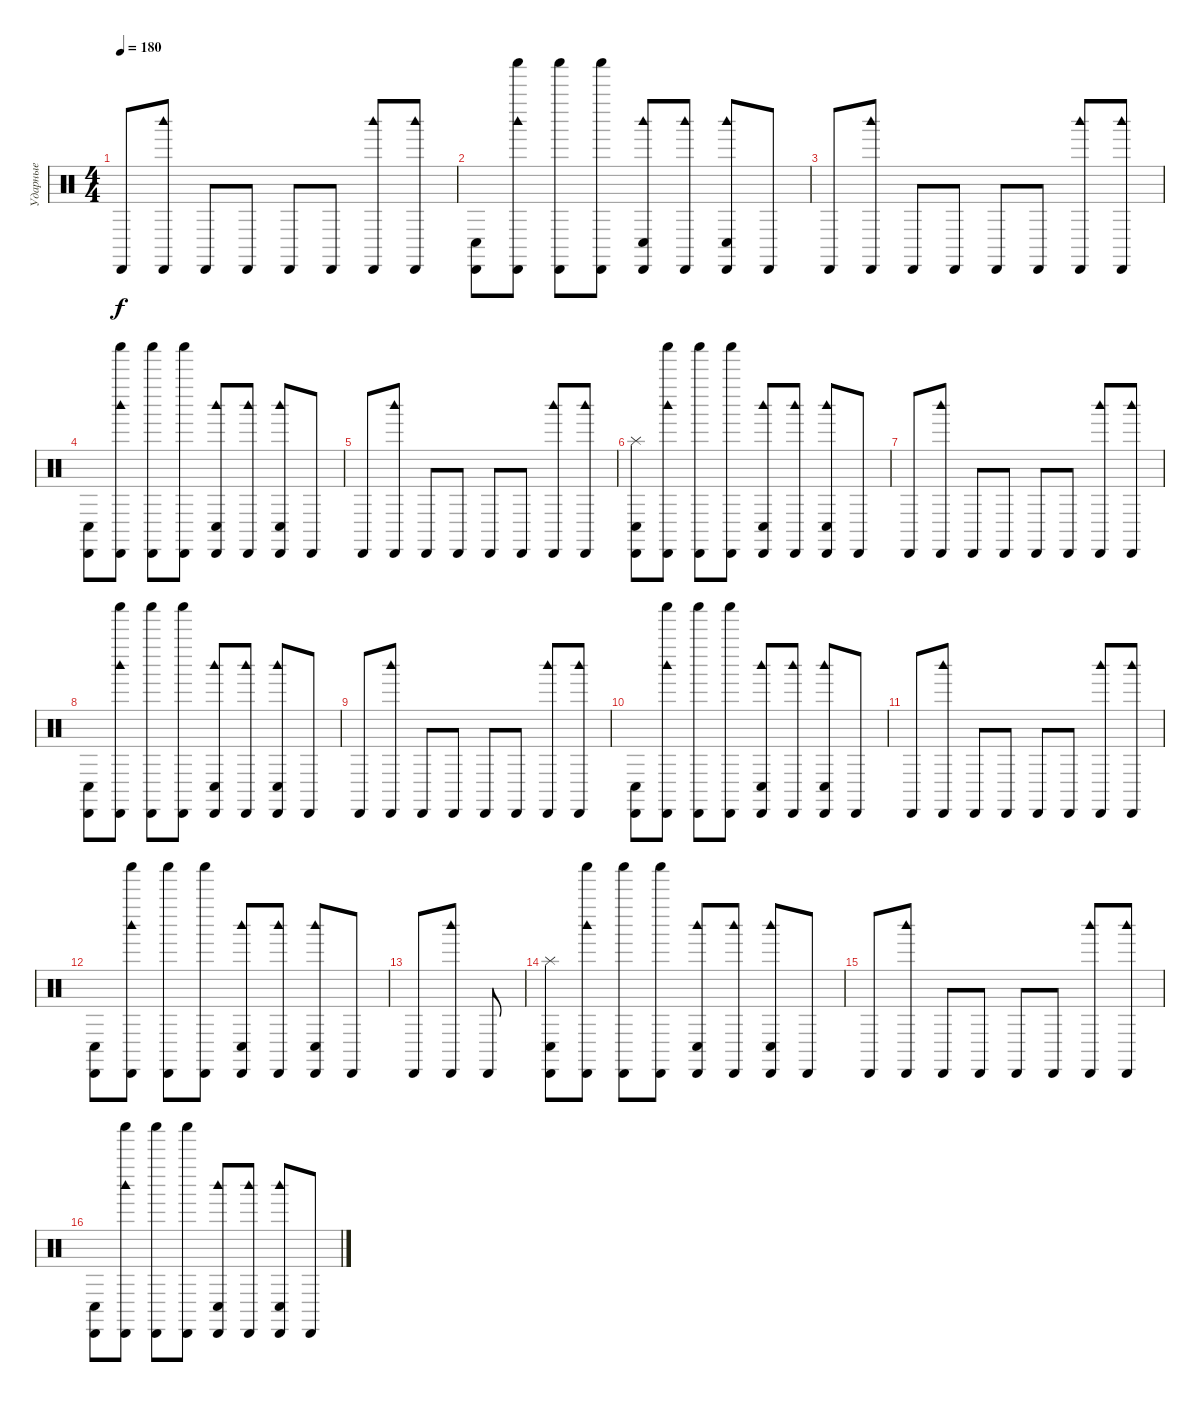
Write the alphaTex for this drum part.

\track ("Ударные" "Ударные") {instrument percussion}
\staff {score}
\articulation defaults
\ts (4 4)
\tempo 180
\clef neutral
\ks c "Cabasa (hit)".8{dy f}
("Woodblock high (hit)" "Cabasa (hit)").8 "Cabasa (hit)".8 "Cabasa (hit)".8 "Cabasa (hit)".8 "Cabasa (hit)".8 ("Woodblock high (hit)" "Cabasa (hit)").8 ("Woodblock high (hit)" "Cabasa (hit)").8 |
("Cabasa (hit)" "Conga low (hit)").8 ("Woodblock high (hit)" "Shaker (hit)" "Cabasa (hit)").8 ("Shaker (hit)" "Cabasa (hit)").8 ("Shaker (hit)" "Cabasa (hit)").8 ("Woodblock high (hit)" "Cabasa (hit)" "Conga low (hit)").8 ("Woodblock high (hit)" "Cabasa (hit)").8 ("Woodblock high (hit)" "Cabasa (hit)" "Conga low (hit)").8 "Cabasa (hit)".8 |
"Cabasa (hit)".8 ("Woodblock high (hit)" "Cabasa (hit)").8 "Cabasa (hit)".8 "Cabasa (hit)".8 "Cabasa (hit)".8 "Cabasa (hit)".8 ("Woodblock high (hit)" "Cabasa (hit)").8 ("Woodblock high (hit)" "Cabasa (hit)").8 |
("Cabasa (hit)" "Conga low (hit)").8 ("Woodblock high (hit)" "Shaker (hit)" "Cabasa (hit)").8 ("Shaker (hit)" "Cabasa (hit)").8 ("Shaker (hit)" "Cabasa (hit)").8 ("Woodblock high (hit)" "Cabasa (hit)" "Conga low (hit)").8 ("Woodblock high (hit)" "Cabasa (hit)").8 ("Woodblock high (hit)" "Cabasa (hit)" "Conga low (hit)").8 "Cabasa (hit)".8 |
"Cabasa (hit)".8 ("Woodblock high (hit)" "Cabasa (hit)").8 "Cabasa (hit)".8 "Cabasa (hit)".8 "Cabasa (hit)".8 "Cabasa (hit)".8 ("Woodblock high (hit)" "Cabasa (hit)").8 ("Woodblock high (hit)" "Cabasa (hit)").8 |
("Cabasa (hit)" "Splash (hit)" "Conga low (hit)").8 ("Woodblock high (hit)" "Shaker (hit)" "Cabasa (hit)").8 ("Shaker (hit)" "Cabasa (hit)").8 ("Shaker (hit)" "Cabasa (hit)").8 ("Woodblock high (hit)" "Cabasa (hit)" "Conga low (hit)").8 ("Woodblock high (hit)" "Cabasa (hit)").8 ("Woodblock high (hit)" "Cabasa (hit)" "Conga low (hit)").8 "Cabasa (hit)".8 |
"Cabasa (hit)".8 ("Woodblock high (hit)" "Cabasa (hit)").8 "Cabasa (hit)".8 "Cabasa (hit)".8 "Cabasa (hit)".8 "Cabasa (hit)".8 ("Woodblock high (hit)" "Cabasa (hit)").8 ("Woodblock high (hit)" "Cabasa (hit)").8 |
("Cabasa (hit)" "Conga low (hit)").8 ("Woodblock high (hit)" "Shaker (hit)" "Cabasa (hit)").8 ("Shaker (hit)" "Cabasa (hit)").8 ("Shaker (hit)" "Cabasa (hit)").8 ("Woodblock high (hit)" "Cabasa (hit)" "Conga low (hit)").8 ("Woodblock high (hit)" "Cabasa (hit)").8 ("Woodblock high (hit)" "Cabasa (hit)" "Conga low (hit)").8 "Cabasa (hit)".8 |
"Cabasa (hit)".8 ("Woodblock high (hit)" "Cabasa (hit)").8 "Cabasa (hit)".8 "Cabasa (hit)".8 "Cabasa (hit)".8 "Cabasa (hit)".8 ("Woodblock high (hit)" "Cabasa (hit)").8 ("Woodblock high (hit)" "Cabasa (hit)").8 |
("Cabasa (hit)" "Conga low (hit)").8 ("Woodblock high (hit)" "Shaker (hit)" "Cabasa (hit)").8 ("Shaker (hit)" "Cabasa (hit)").8 ("Shaker (hit)" "Cabasa (hit)").8 ("Woodblock high (hit)" "Cabasa (hit)" "Conga low (hit)").8 ("Woodblock high (hit)" "Cabasa (hit)").8 ("Woodblock high (hit)" "Cabasa (hit)" "Conga low (hit)").8 "Cabasa (hit)".8 |
"Cabasa (hit)".8 ("Woodblock high (hit)" "Cabasa (hit)").8 "Cabasa (hit)".8 "Cabasa (hit)".8 "Cabasa (hit)".8 "Cabasa (hit)".8 ("Woodblock high (hit)" "Cabasa (hit)").8 ("Woodblock high (hit)" "Cabasa (hit)").8 |
("Cabasa (hit)" "Conga low (hit)").8 ("Woodblock high (hit)" "Shaker (hit)" "Cabasa (hit)").8 ("Shaker (hit)" "Cabasa (hit)").8 ("Shaker (hit)" "Cabasa (hit)").8 ("Woodblock high (hit)" "Cabasa (hit)" "Conga low (hit)").8 ("Woodblock high (hit)" "Cabasa (hit)").8 ("Woodblock high (hit)" "Cabasa (hit)" "Conga low (hit)").8 "Cabasa (hit)".8 |
"Cabasa (hit)".8 ("Woodblock high (hit)" "Cabasa (hit)").8 "Cabasa (hit)".8 |
("Cabasa (hit)" "Splash (hit)" "Conga low (hit)").8 ("Woodblock high (hit)" "Shaker (hit)" "Cabasa (hit)").8 ("Shaker (hit)" "Cabasa (hit)").8 ("Shaker (hit)" "Cabasa (hit)").8 ("Woodblock high (hit)" "Cabasa (hit)" "Conga low (hit)").8 ("Woodblock high (hit)" "Cabasa (hit)").8 ("Woodblock high (hit)" "Cabasa (hit)" "Conga low (hit)").8 "Cabasa (hit)".8 |
"Cabasa (hit)".8 ("Woodblock high (hit)" "Cabasa (hit)").8 "Cabasa (hit)".8 "Cabasa (hit)".8 "Cabasa (hit)".8 "Cabasa (hit)".8 ("Woodblock high (hit)" "Cabasa (hit)").8 ("Woodblock high (hit)" "Cabasa (hit)").8 |
("Cabasa (hit)" "Conga low (hit)").8 ("Woodblock high (hit)" "Shaker (hit)" "Cabasa (hit)").8 ("Shaker (hit)" "Cabasa (hit)").8 ("Shaker (hit)" "Cabasa (hit)").8 ("Woodblock high (hit)" "Cabasa (hit)" "Conga low (hit)").8 ("Woodblock high (hit)" "Cabasa (hit)").8 ("Woodblock high (hit)" "Cabasa (hit)" "Conga low (hit)").8 "Cabasa (hit)".8
